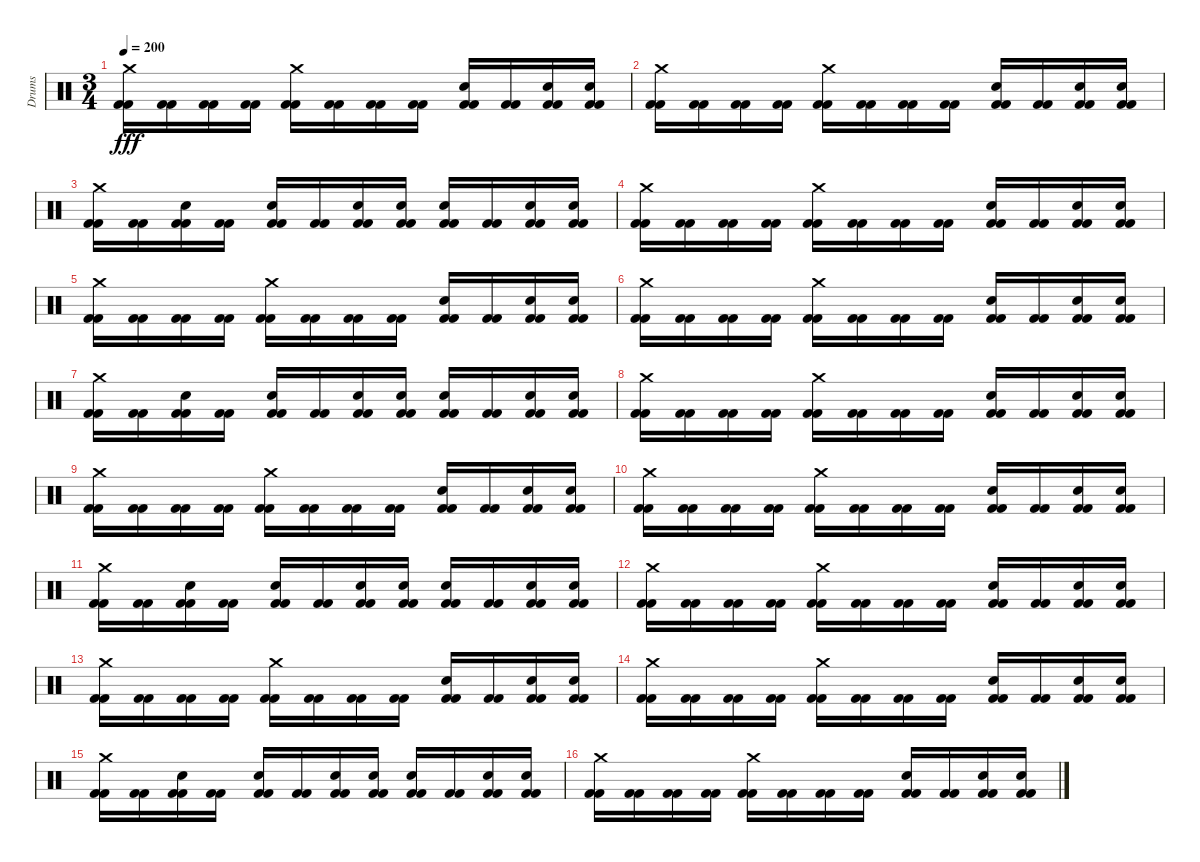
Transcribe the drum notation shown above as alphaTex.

\track ("Drums" "Drums") {instrument percussion}
\staff {score}
\articulation defaults
\ts (3 4)
\tempo 200
\clef neutral
\ks c
("Crash medium (hit)" "Kick (hit) 2" "Kick (hit) 2").16{dy fff} ("Kick (hit) 2" "Kick (hit) 2").16 ("Kick (hit) 2" "Kick (hit) 2").16 ("Kick (hit) 2" "Kick (hit) 2").16 ("Crash medium (hit)" "Kick (hit) 2" "Kick (hit) 2").16 ("Kick (hit) 2" "Kick (hit) 2").16 ("Kick (hit) 2" "Kick (hit) 2").16 ("Kick (hit) 2" "Kick (hit) 2").16 ("Electric Snare (hit)" "Kick (hit) 2" "Kick (hit) 2").16 ("Kick (hit) 2" "Kick (hit) 2").16 ("Electric Snare (hit)" "Kick (hit) 2" "Kick (hit) 2").16 ("Electric Snare (hit)" "Kick (hit) 2" "Kick (hit) 2").16 |
("Crash medium (hit)" "Kick (hit) 2" "Kick (hit) 2").16 ("Kick (hit) 2" "Kick (hit) 2").16 ("Kick (hit) 2" "Kick (hit) 2").16 ("Kick (hit) 2" "Kick (hit) 2").16 ("Crash medium (hit)" "Kick (hit) 2" "Kick (hit) 2").16 ("Kick (hit) 2" "Kick (hit) 2").16 ("Kick (hit) 2" "Kick (hit) 2").16 ("Kick (hit) 2" "Kick (hit) 2").16 ("Electric Snare (hit)" "Kick (hit) 2" "Kick (hit) 2").16 ("Kick (hit) 2" "Kick (hit) 2").16 ("Electric Snare (hit)" "Kick (hit) 2" "Kick (hit) 2").16 ("Electric Snare (hit)" "Kick (hit) 2" "Kick (hit) 2").16 |
("Crash medium (hit)" "Kick (hit) 2" "Kick (hit) 2").16 ("Kick (hit) 2" "Kick (hit) 2").16 ("Electric Snare (hit)" "Kick (hit) 2" "Kick (hit) 2").16 ("Kick (hit) 2" "Kick (hit) 2").16 ("Electric Snare (hit)" "Kick (hit) 2" "Kick (hit) 2").16 ("Kick (hit) 2" "Kick (hit) 2").16 ("Electric Snare (hit)" "Kick (hit) 2" "Kick (hit) 2").16 ("Electric Snare (hit)" "Kick (hit) 2" "Kick (hit) 2").16 ("Electric Snare (hit)" "Kick (hit) 2" "Kick (hit) 2").16 ("Kick (hit) 2" "Kick (hit) 2").16 ("Electric Snare (hit)" "Kick (hit) 2" "Kick (hit) 2").16 ("Electric Snare (hit)" "Kick (hit) 2" "Kick (hit) 2").16 |
("Crash medium (hit)" "Kick (hit) 2" "Kick (hit) 2").16 ("Kick (hit) 2" "Kick (hit) 2").16 ("Kick (hit) 2" "Kick (hit) 2").16 ("Kick (hit) 2" "Kick (hit) 2").16 ("Crash medium (hit)" "Kick (hit) 2" "Kick (hit) 2").16 ("Kick (hit) 2" "Kick (hit) 2").16 ("Kick (hit) 2" "Kick (hit) 2").16 ("Kick (hit) 2" "Kick (hit) 2").16 ("Electric Snare (hit)" "Kick (hit) 2" "Kick (hit) 2").16 ("Kick (hit) 2" "Kick (hit) 2").16 ("Electric Snare (hit)" "Kick (hit) 2" "Kick (hit) 2").16 ("Electric Snare (hit)" "Kick (hit) 2" "Kick (hit) 2").16 |
("Crash medium (hit)" "Kick (hit) 2" "Kick (hit) 2").16 ("Kick (hit) 2" "Kick (hit) 2").16 ("Kick (hit) 2" "Kick (hit) 2").16 ("Kick (hit) 2" "Kick (hit) 2").16 ("Crash medium (hit)" "Kick (hit) 2" "Kick (hit) 2").16 ("Kick (hit) 2" "Kick (hit) 2").16 ("Kick (hit) 2" "Kick (hit) 2").16 ("Kick (hit) 2" "Kick (hit) 2").16 ("Electric Snare (hit)" "Kick (hit) 2" "Kick (hit) 2").16 ("Kick (hit) 2" "Kick (hit) 2").16 ("Electric Snare (hit)" "Kick (hit) 2" "Kick (hit) 2").16 ("Electric Snare (hit)" "Kick (hit) 2" "Kick (hit) 2").16 |
("Crash medium (hit)" "Kick (hit) 2" "Kick (hit) 2").16 ("Kick (hit) 2" "Kick (hit) 2").16 ("Kick (hit) 2" "Kick (hit) 2").16 ("Kick (hit) 2" "Kick (hit) 2").16 ("Crash medium (hit)" "Kick (hit) 2" "Kick (hit) 2").16 ("Kick (hit) 2" "Kick (hit) 2").16 ("Kick (hit) 2" "Kick (hit) 2").16 ("Kick (hit) 2" "Kick (hit) 2").16 ("Electric Snare (hit)" "Kick (hit) 2" "Kick (hit) 2").16 ("Kick (hit) 2" "Kick (hit) 2").16 ("Electric Snare (hit)" "Kick (hit) 2" "Kick (hit) 2").16 ("Electric Snare (hit)" "Kick (hit) 2" "Kick (hit) 2").16 |
("Crash medium (hit)" "Kick (hit) 2" "Kick (hit) 2").16 ("Kick (hit) 2" "Kick (hit) 2").16 ("Electric Snare (hit)" "Kick (hit) 2" "Kick (hit) 2").16 ("Kick (hit) 2" "Kick (hit) 2").16 ("Electric Snare (hit)" "Kick (hit) 2" "Kick (hit) 2").16 ("Kick (hit) 2" "Kick (hit) 2").16 ("Electric Snare (hit)" "Kick (hit) 2" "Kick (hit) 2").16 ("Electric Snare (hit)" "Kick (hit) 2" "Kick (hit) 2").16 ("Electric Snare (hit)" "Kick (hit) 2" "Kick (hit) 2").16 ("Kick (hit) 2" "Kick (hit) 2").16 ("Electric Snare (hit)" "Kick (hit) 2" "Kick (hit) 2").16 ("Electric Snare (hit)" "Kick (hit) 2" "Kick (hit) 2").16 |
("Crash medium (hit)" "Kick (hit) 2" "Kick (hit) 2").16 ("Kick (hit) 2" "Kick (hit) 2").16 ("Kick (hit) 2" "Kick (hit) 2").16 ("Kick (hit) 2" "Kick (hit) 2").16 ("Crash medium (hit)" "Kick (hit) 2" "Kick (hit) 2").16 ("Kick (hit) 2" "Kick (hit) 2").16 ("Kick (hit) 2" "Kick (hit) 2").16 ("Kick (hit) 2" "Kick (hit) 2").16 ("Electric Snare (hit)" "Kick (hit) 2" "Kick (hit) 2").16 ("Kick (hit) 2" "Kick (hit) 2").16 ("Electric Snare (hit)" "Kick (hit) 2" "Kick (hit) 2").16 ("Electric Snare (hit)" "Kick (hit) 2" "Kick (hit) 2").16 |
("Crash medium (hit)" "Kick (hit) 2" "Kick (hit) 2").16 ("Kick (hit) 2" "Kick (hit) 2").16 ("Kick (hit) 2" "Kick (hit) 2").16 ("Kick (hit) 2" "Kick (hit) 2").16 ("Crash medium (hit)" "Kick (hit) 2" "Kick (hit) 2").16 ("Kick (hit) 2" "Kick (hit) 2").16 ("Kick (hit) 2" "Kick (hit) 2").16 ("Kick (hit) 2" "Kick (hit) 2").16 ("Electric Snare (hit)" "Kick (hit) 2" "Kick (hit) 2").16 ("Kick (hit) 2" "Kick (hit) 2").16 ("Electric Snare (hit)" "Kick (hit) 2" "Kick (hit) 2").16 ("Electric Snare (hit)" "Kick (hit) 2" "Kick (hit) 2").16 |
("Crash medium (hit)" "Kick (hit) 2" "Kick (hit) 2").16 ("Kick (hit) 2" "Kick (hit) 2").16 ("Kick (hit) 2" "Kick (hit) 2").16 ("Kick (hit) 2" "Kick (hit) 2").16 ("Crash medium (hit)" "Kick (hit) 2" "Kick (hit) 2").16 ("Kick (hit) 2" "Kick (hit) 2").16 ("Kick (hit) 2" "Kick (hit) 2").16 ("Kick (hit) 2" "Kick (hit) 2").16 ("Electric Snare (hit)" "Kick (hit) 2" "Kick (hit) 2").16 ("Kick (hit) 2" "Kick (hit) 2").16 ("Electric Snare (hit)" "Kick (hit) 2" "Kick (hit) 2").16 ("Electric Snare (hit)" "Kick (hit) 2" "Kick (hit) 2").16 |
("Crash medium (hit)" "Kick (hit) 2" "Kick (hit) 2").16 ("Kick (hit) 2" "Kick (hit) 2").16 ("Electric Snare (hit)" "Kick (hit) 2" "Kick (hit) 2").16 ("Kick (hit) 2" "Kick (hit) 2").16 ("Electric Snare (hit)" "Kick (hit) 2" "Kick (hit) 2").16 ("Kick (hit) 2" "Kick (hit) 2").16 ("Electric Snare (hit)" "Kick (hit) 2" "Kick (hit) 2").16 ("Electric Snare (hit)" "Kick (hit) 2" "Kick (hit) 2").16 ("Electric Snare (hit)" "Kick (hit) 2" "Kick (hit) 2").16 ("Kick (hit) 2" "Kick (hit) 2").16 ("Electric Snare (hit)" "Kick (hit) 2" "Kick (hit) 2").16 ("Electric Snare (hit)" "Kick (hit) 2" "Kick (hit) 2").16 |
("Crash medium (hit)" "Kick (hit) 2" "Kick (hit) 2").16 ("Kick (hit) 2" "Kick (hit) 2").16 ("Kick (hit) 2" "Kick (hit) 2").16 ("Kick (hit) 2" "Kick (hit) 2").16 ("Crash medium (hit)" "Kick (hit) 2" "Kick (hit) 2").16 ("Kick (hit) 2" "Kick (hit) 2").16 ("Kick (hit) 2" "Kick (hit) 2").16 ("Kick (hit) 2" "Kick (hit) 2").16 ("Electric Snare (hit)" "Kick (hit) 2" "Kick (hit) 2").16 ("Kick (hit) 2" "Kick (hit) 2").16 ("Electric Snare (hit)" "Kick (hit) 2" "Kick (hit) 2").16 ("Electric Snare (hit)" "Kick (hit) 2" "Kick (hit) 2").16 |
("Crash medium (hit)" "Kick (hit) 2" "Kick (hit) 2").16 ("Kick (hit) 2" "Kick (hit) 2").16 ("Kick (hit) 2" "Kick (hit) 2").16 ("Kick (hit) 2" "Kick (hit) 2").16 ("Crash medium (hit)" "Kick (hit) 2" "Kick (hit) 2").16 ("Kick (hit) 2" "Kick (hit) 2").16 ("Kick (hit) 2" "Kick (hit) 2").16 ("Kick (hit) 2" "Kick (hit) 2").16 ("Electric Snare (hit)" "Kick (hit) 2" "Kick (hit) 2").16 ("Kick (hit) 2" "Kick (hit) 2").16 ("Electric Snare (hit)" "Kick (hit) 2" "Kick (hit) 2").16 ("Electric Snare (hit)" "Kick (hit) 2" "Kick (hit) 2").16 |
("Crash medium (hit)" "Kick (hit) 2" "Kick (hit) 2").16 ("Kick (hit) 2" "Kick (hit) 2").16 ("Kick (hit) 2" "Kick (hit) 2").16 ("Kick (hit) 2" "Kick (hit) 2").16 ("Crash medium (hit)" "Kick (hit) 2" "Kick (hit) 2").16 ("Kick (hit) 2" "Kick (hit) 2").16 ("Kick (hit) 2" "Kick (hit) 2").16 ("Kick (hit) 2" "Kick (hit) 2").16 ("Electric Snare (hit)" "Kick (hit) 2" "Kick (hit) 2").16 ("Kick (hit) 2" "Kick (hit) 2").16 ("Electric Snare (hit)" "Kick (hit) 2" "Kick (hit) 2").16 ("Electric Snare (hit)" "Kick (hit) 2" "Kick (hit) 2").16 |
("Crash medium (hit)" "Kick (hit) 2" "Kick (hit) 2").16 ("Kick (hit) 2" "Kick (hit) 2").16 ("Electric Snare (hit)" "Kick (hit) 2" "Kick (hit) 2").16 ("Kick (hit) 2" "Kick (hit) 2").16 ("Electric Snare (hit)" "Kick (hit) 2" "Kick (hit) 2").16 ("Kick (hit) 2" "Kick (hit) 2").16 ("Electric Snare (hit)" "Kick (hit) 2" "Kick (hit) 2").16 ("Electric Snare (hit)" "Kick (hit) 2" "Kick (hit) 2").16 ("Electric Snare (hit)" "Kick (hit) 2" "Kick (hit) 2").16 ("Kick (hit) 2" "Kick (hit) 2").16 ("Electric Snare (hit)" "Kick (hit) 2" "Kick (hit) 2").16 ("Electric Snare (hit)" "Kick (hit) 2" "Kick (hit) 2").16 |
("Crash medium (hit)" "Kick (hit) 2" "Kick (hit) 2").16 ("Kick (hit) 2" "Kick (hit) 2").16 ("Kick (hit) 2" "Kick (hit) 2").16 ("Kick (hit) 2" "Kick (hit) 2").16 ("Crash medium (hit)" "Kick (hit) 2" "Kick (hit) 2").16 ("Kick (hit) 2" "Kick (hit) 2").16 ("Kick (hit) 2" "Kick (hit) 2").16 ("Kick (hit) 2" "Kick (hit) 2").16 ("Electric Snare (hit)" "Kick (hit) 2" "Kick (hit) 2").16 ("Kick (hit) 2" "Kick (hit) 2").16 ("Electric Snare (hit)" "Kick (hit) 2" "Kick (hit) 2").16 ("Electric Snare (hit)" "Kick (hit) 2" "Kick (hit) 2").16
